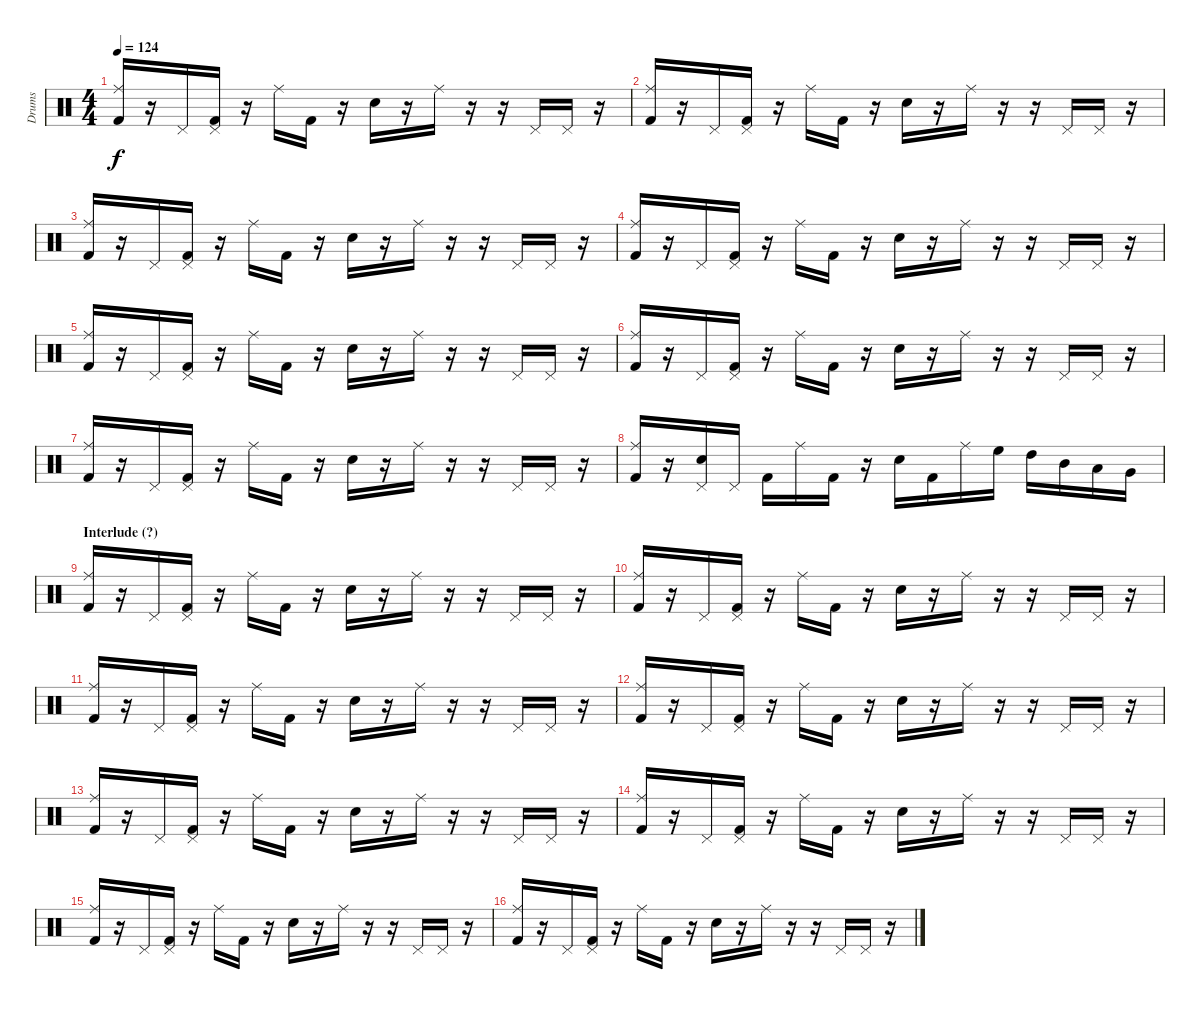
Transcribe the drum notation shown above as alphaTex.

\track ("Drums" "Drums") {instrument percussion}
\staff {score}
\articulation defaults
\ts (4 4)
\tempo 124
\clef neutral
\ks c
("Ride (middle)" "Kick (hit) 2").16{dy f} r.16 "Pedal Hi-Hat (hit)".16 ("Pedal Hi-Hat (hit)" "Kick (hit) 2").16 r.16 "Ride (middle)".16 "Kick (hit) 2".16 r.16 "Electric Snare (hit)".16 r.16 "Ride (middle)".16 r.16 r.16 "Pedal Hi-Hat (hit)".16 "Pedal Hi-Hat (hit)".16 r.16 |
("Ride (middle)" "Kick (hit) 2").16 r.16 "Pedal Hi-Hat (hit)".16 ("Pedal Hi-Hat (hit)" "Kick (hit) 2").16 r.16 "Ride (middle)".16 "Kick (hit) 2".16 r.16 "Electric Snare (hit)".16 r.16 "Ride (middle)".16 r.16 r.16 "Pedal Hi-Hat (hit)".16 "Pedal Hi-Hat (hit)".16 r.16 |
("Ride (middle)" "Kick (hit) 2").16 r.16 "Pedal Hi-Hat (hit)".16 ("Pedal Hi-Hat (hit)" "Kick (hit) 2").16 r.16 "Ride (middle)".16 "Kick (hit) 2".16 r.16 "Electric Snare (hit)".16 r.16 "Ride (middle)".16 r.16 r.16 "Pedal Hi-Hat (hit)".16 "Pedal Hi-Hat (hit)".16 r.16 |
("Ride (middle)" "Kick (hit) 2").16 r.16 "Pedal Hi-Hat (hit)".16 ("Pedal Hi-Hat (hit)" "Kick (hit) 2").16 r.16 "Ride (middle)".16 "Kick (hit) 2".16 r.16 "Electric Snare (hit)".16 r.16 "Ride (middle)".16 r.16 r.16 "Pedal Hi-Hat (hit)".16 "Pedal Hi-Hat (hit)".16 r.16 |
("Ride (middle)" "Kick (hit) 2").16 r.16 "Pedal Hi-Hat (hit)".16 ("Pedal Hi-Hat (hit)" "Kick (hit) 2").16 r.16 "Ride (middle)".16 "Kick (hit) 2".16 r.16 "Electric Snare (hit)".16 r.16 "Ride (middle)".16 r.16 r.16 "Pedal Hi-Hat (hit)".16 "Pedal Hi-Hat (hit)".16 r.16 |
("Ride (middle)" "Kick (hit) 2").16 r.16 "Pedal Hi-Hat (hit)".16 ("Pedal Hi-Hat (hit)" "Kick (hit) 2").16 r.16 "Ride (middle)".16 "Kick (hit) 2".16 r.16 "Electric Snare (hit)".16 r.16 "Ride (middle)".16 r.16 r.16 "Pedal Hi-Hat (hit)".16 "Pedal Hi-Hat (hit)".16 r.16 |
("Ride (middle)" "Kick (hit) 2").16 r.16 "Pedal Hi-Hat (hit)".16 ("Pedal Hi-Hat (hit)" "Kick (hit) 2").16 r.16 "Ride (middle)".16 "Kick (hit) 2".16 r.16 "Electric Snare (hit)".16 r.16 "Ride (middle)".16 r.16 r.16 "Pedal Hi-Hat (hit)".16 "Pedal Hi-Hat (hit)".16 r.16 |
("Ride (middle)" "Kick (hit) 2").16 r.16 ("Pedal Hi-Hat (hit)" "Electric Snare (hit)").16 "Pedal Hi-Hat (hit)".16 "Kick (hit) 2".16 "Ride (middle)".16 "Kick (hit) 2".16 r.16 "Electric Snare (hit)".16 "Kick (hit) 2".16 "Ride (middle)".16 "High Floor Tom (hit)".16 "High Tom (hit)".16 "Mid Tom (hit)".16 "Low Tom (hit)".16 "Very Low Tom (hit)".16 |
\section ("" "Interlude (?)")
("Ride (middle)" "Kick (hit) 2").16 r.16 "Pedal Hi-Hat (hit)".16 ("Pedal Hi-Hat (hit)" "Kick (hit) 2").16 r.16 "Ride (middle)".16 "Kick (hit) 2".16 r.16 "Electric Snare (hit)".16 r.16 "Ride (middle)".16 r.16 r.16 "Pedal Hi-Hat (hit)".16 "Pedal Hi-Hat (hit)".16 r.16 |
("Ride (middle)" "Kick (hit) 2").16 r.16 "Pedal Hi-Hat (hit)".16 ("Pedal Hi-Hat (hit)" "Kick (hit) 2").16 r.16 "Ride (middle)".16 "Kick (hit) 2".16 r.16 "Electric Snare (hit)".16 r.16 "Ride (middle)".16 r.16 r.16 "Pedal Hi-Hat (hit)".16 "Pedal Hi-Hat (hit)".16 r.16 |
("Ride (middle)" "Kick (hit) 2").16 r.16 "Pedal Hi-Hat (hit)".16 ("Pedal Hi-Hat (hit)" "Kick (hit) 2").16 r.16 "Ride (middle)".16 "Kick (hit) 2".16 r.16 "Electric Snare (hit)".16 r.16 "Ride (middle)".16 r.16 r.16 "Pedal Hi-Hat (hit)".16 "Pedal Hi-Hat (hit)".16 r.16 |
("Ride (middle)" "Kick (hit) 2").16 r.16 "Pedal Hi-Hat (hit)".16 ("Pedal Hi-Hat (hit)" "Kick (hit) 2").16 r.16 "Ride (middle)".16 "Kick (hit) 2".16 r.16 "Electric Snare (hit)".16 r.16 "Ride (middle)".16 r.16 r.16 "Pedal Hi-Hat (hit)".16 "Pedal Hi-Hat (hit)".16 r.16 |
("Ride (middle)" "Kick (hit) 2").16 r.16 "Pedal Hi-Hat (hit)".16 ("Pedal Hi-Hat (hit)" "Kick (hit) 2").16 r.16 "Ride (middle)".16 "Kick (hit) 2".16 r.16 "Electric Snare (hit)".16 r.16 "Ride (middle)".16 r.16 r.16 "Pedal Hi-Hat (hit)".16 "Pedal Hi-Hat (hit)".16 r.16 |
("Ride (middle)" "Kick (hit) 2").16 r.16 "Pedal Hi-Hat (hit)".16 ("Pedal Hi-Hat (hit)" "Kick (hit) 2").16 r.16 "Ride (middle)".16 "Kick (hit) 2".16 r.16 "Electric Snare (hit)".16 r.16 "Ride (middle)".16 r.16 r.16 "Pedal Hi-Hat (hit)".16 "Pedal Hi-Hat (hit)".16 r.16 |
("Ride (middle)" "Kick (hit) 2").16 r.16 "Pedal Hi-Hat (hit)".16 ("Pedal Hi-Hat (hit)" "Kick (hit) 2").16 r.16 "Ride (middle)".16 "Kick (hit) 2".16 r.16 "Electric Snare (hit)".16 r.16 "Ride (middle)".16 r.16 r.16 "Pedal Hi-Hat (hit)".16 "Pedal Hi-Hat (hit)".16 r.16 |
("Ride (middle)" "Kick (hit) 2").16 r.16 "Pedal Hi-Hat (hit)".16 ("Pedal Hi-Hat (hit)" "Kick (hit) 2").16 r.16 "Ride (middle)".16 "Kick (hit) 2".16 r.16 "Electric Snare (hit)".16 r.16 "Ride (middle)".16 r.16 r.16 "Pedal Hi-Hat (hit)".16 "Pedal Hi-Hat (hit)".16 r.16
